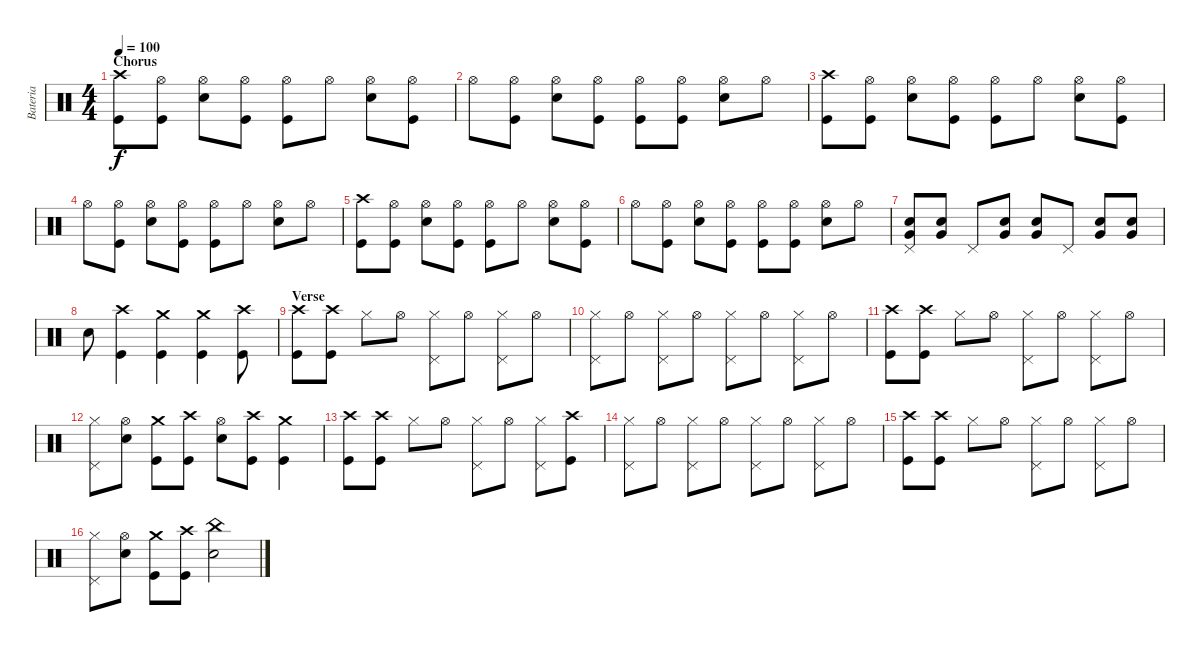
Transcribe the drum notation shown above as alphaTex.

\track ("Bateria" "Bateria") {instrument percussion}
\staff {score}
\articulation defaults
\ts (4 4)
\section ("" "Chorus")
\tempo 100
\clef neutral
\ks c
("Crash high (hit)" "Kick (hit)").8{dy f} ("Hi-Hat (open)" "Kick (hit)").8 ("Hi-Hat (open)" "Electric Snare (hit)").8 ("Hi-Hat (open)" "Kick (hit)").8 ("Hi-Hat (open)" "Kick (hit)").8 "Hi-Hat (open)".8 ("Hi-Hat (open)" "Electric Snare (hit)").8 ("Hi-Hat (open)" "Kick (hit)").8 |
"Hi-Hat (open)".8 ("Hi-Hat (open)" "Kick (hit)").8 ("Hi-Hat (open)" "Electric Snare (hit)").8 ("Hi-Hat (open)" "Kick (hit)").8 ("Hi-Hat (open)" "Kick (hit)").8 ("Hi-Hat (open)" "Kick (hit)").8 ("Hi-Hat (open)" "Electric Snare (hit)").8 "Hi-Hat (open)".8 |
("Crash high (hit)" "Kick (hit)").8 ("Hi-Hat (open)" "Kick (hit)").8 ("Hi-Hat (open)" "Electric Snare (hit)").8 ("Hi-Hat (open)" "Kick (hit)").8 ("Hi-Hat (open)" "Kick (hit)").8 "Hi-Hat (open)".8 ("Hi-Hat (open)" "Electric Snare (hit)").8 ("Hi-Hat (open)" "Kick (hit)").8 |
"Hi-Hat (open)".8 ("Hi-Hat (open)" "Kick (hit)").8 ("Hi-Hat (open)" "Electric Snare (hit)").8 ("Hi-Hat (open)" "Kick (hit)").8 ("Hi-Hat (open)" "Kick (hit)").8 "Hi-Hat (open)".8 ("Hi-Hat (open)" "Electric Snare (hit)").8 "Hi-Hat (open)".8 |
("Crash high (hit)" "Kick (hit)").8 ("Hi-Hat (open)" "Kick (hit)").8 ("Hi-Hat (open)" "Electric Snare (hit)").8 ("Hi-Hat (open)" "Kick (hit)").8 ("Hi-Hat (open)" "Kick (hit)").8 "Hi-Hat (open)".8 ("Hi-Hat (open)" "Electric Snare (hit)").8 ("Hi-Hat (open)" "Kick (hit)").8 |
"Hi-Hat (open)".8 ("Hi-Hat (open)" "Kick (hit)").8 ("Hi-Hat (open)" "Electric Snare (hit)").8 ("Hi-Hat (open)" "Kick (hit)").8 ("Hi-Hat (open)" "Kick (hit)").8 ("Hi-Hat (open)" "Kick (hit)").8 ("Hi-Hat (open)" "Electric Snare (hit)").8 "Hi-Hat (open)".8 |
("Very Low Tom (hit)" "Electric Snare (hit)" "Pedal Hi-Hat (hit)").8 ("Very Low Tom (hit)" "Electric Snare (hit)").8 "Pedal Hi-Hat (hit)".8 ("Very Low Tom (hit)" "Electric Snare (hit)").8 ("Very Low Tom (hit)" "Electric Snare (hit)").8 "Pedal Hi-Hat (hit)".8 ("Very Low Tom (hit)" "Electric Snare (hit)").8 ("Very Low Tom (hit)" "Electric Snare (hit)").8 |
"Electric Snare (hit)".8 ("Crash high (hit)" "Kick (hit)").4 ("Crash medium (hit)" "Kick (hit)").4 ("Crash medium (hit)" "Kick (hit)").4 ("Crash high (hit)" "Kick (hit)").8 |
\section ("" "Verse")
("Crash high (hit)" "Kick (hit)").8 ("Crash high (hit)" "Kick (hit)").8 "Hi-Hat (closed)".8 "Hi-Hat (open)".8 ("Hi-Hat (closed)" "Pedal Hi-Hat (hit)").8 "Hi-Hat (open)".8 ("Hi-Hat (closed)" "Pedal Hi-Hat (hit)").8 "Hi-Hat (open)".8 |
("Hi-Hat (closed)" "Pedal Hi-Hat (hit)").8 "Hi-Hat (open)".8 ("Hi-Hat (closed)" "Pedal Hi-Hat (hit)").8 "Hi-Hat (open)".8 ("Hi-Hat (closed)" "Pedal Hi-Hat (hit)").8 "Hi-Hat (open)".8 ("Hi-Hat (closed)" "Pedal Hi-Hat (hit)").8 "Hi-Hat (open)".8 |
("Crash high (hit)" "Kick (hit)").8 ("Crash high (hit)" "Kick (hit)").8 "Hi-Hat (closed)".8 "Hi-Hat (open)".8 ("Hi-Hat (closed)" "Pedal Hi-Hat (hit)").8 "Hi-Hat (open)".8 ("Hi-Hat (closed)" "Pedal Hi-Hat (hit)").8 "Hi-Hat (open)".8 |
("Hi-Hat (closed)" "Pedal Hi-Hat (hit)").8 ("Hi-Hat (open)" "Electric Snare (hit)").8 ("Crash medium (hit)" "Kick (hit)").8 ("Crash high (hit)" "Kick (hit)").8 ("Hi-Hat (open)" "Electric Snare (hit)").8 ("Crash high (hit)" "Kick (hit)").8 ("Crash medium (hit)" "Kick (hit)").4 |
("Crash high (hit)" "Kick (hit)").8 ("Crash high (hit)" "Kick (hit)").8 "Hi-Hat (closed)".8 "Hi-Hat (open)".8 ("Hi-Hat (closed)" "Pedal Hi-Hat (hit)").8 "Hi-Hat (open)".8 ("Hi-Hat (closed)" "Pedal Hi-Hat (hit)").8 ("Crash high (hit)" "Kick (hit)").8 |
("Hi-Hat (closed)" "Pedal Hi-Hat (hit)").8 "Hi-Hat (open)".8 ("Hi-Hat (closed)" "Pedal Hi-Hat (hit)").8 "Hi-Hat (open)".8 ("Hi-Hat (closed)" "Pedal Hi-Hat (hit)").8 "Hi-Hat (open)".8 ("Hi-Hat (closed)" "Pedal Hi-Hat (hit)").8 "Hi-Hat (open)".8 |
("Crash high (hit)" "Kick (hit)").8 ("Crash high (hit)" "Kick (hit)").8 "Hi-Hat (closed)".8 "Hi-Hat (open)".8 ("Hi-Hat (closed)" "Pedal Hi-Hat (hit)").8 "Hi-Hat (open)".8 ("Hi-Hat (closed)" "Pedal Hi-Hat (hit)").8 "Hi-Hat (open)".8 |
("Hi-Hat (closed)" "Pedal Hi-Hat (hit)").8 ("Hi-Hat (open)" "Electric Snare (hit)").8 ("Crash medium (hit)" "Kick (hit)").8 ("Crash high (hit)" "Kick (hit)").8 ("China (hit)" "Electric Snare (hit)").2
